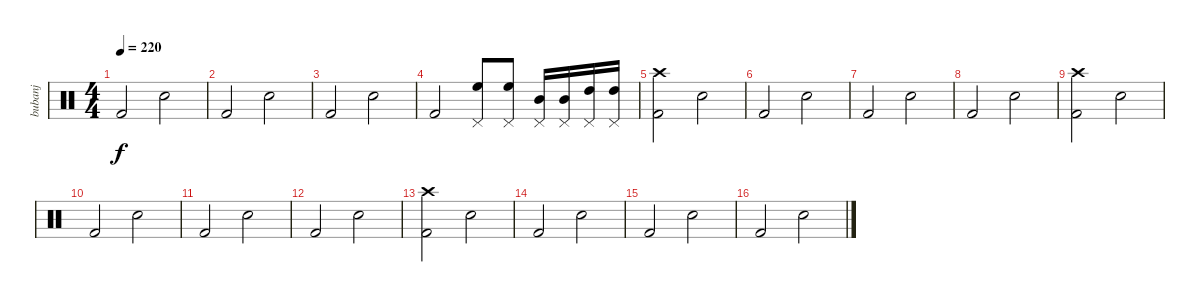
\track ("bubanj" "bubanj") {instrument percussion}
\staff {score}
\articulation defaults
\ts (4 4)
\tempo 220
\clef neutral
\ks c "Kick (hit) 2".2{dy f} "Snare (hit) 2".2
|
"Kick (hit) 2".2 "Snare (hit) 2".2 |
"Kick (hit) 2".2 "Snare (hit) 2".2 |
"Kick (hit) 2".2 ("High Floor Tom (hit)" "Pedal Hi-Hat (hit)").8 ("High Floor Tom (hit)" "Pedal Hi-Hat (hit)").8 ("Mid Tom (hit)" "Pedal Hi-Hat (hit)").16 ("Mid Tom (hit)" "Pedal Hi-Hat (hit)").16 ("High Tom (hit)" "Pedal Hi-Hat (hit)").16 ("High Tom (hit)" "Pedal Hi-Hat (hit)").16 |
("Kick (hit) 2" "Crash high (hit)").2 "Snare (hit) 2".2 |
"Kick (hit) 2".2 "Snare (hit) 2".2 |
"Kick (hit) 2".2 "Snare (hit) 2".2 |
"Kick (hit) 2".2 "Snare (hit) 2".2 |
("Kick (hit) 2" "Crash high (hit)").2 "Snare (hit) 2".2 |
"Kick (hit) 2".2 "Snare (hit) 2".2 |
"Kick (hit) 2".2 "Snare (hit) 2".2 |
"Kick (hit) 2".2 "Snare (hit) 2".2 |
("Kick (hit) 2" "Crash high (hit)").2 "Snare (hit) 2".2 |
"Kick (hit) 2".2 "Snare (hit) 2".2 |
"Kick (hit) 2".2 "Snare (hit) 2".2 |
"Kick (hit) 2".2 "Snare (hit) 2".2
